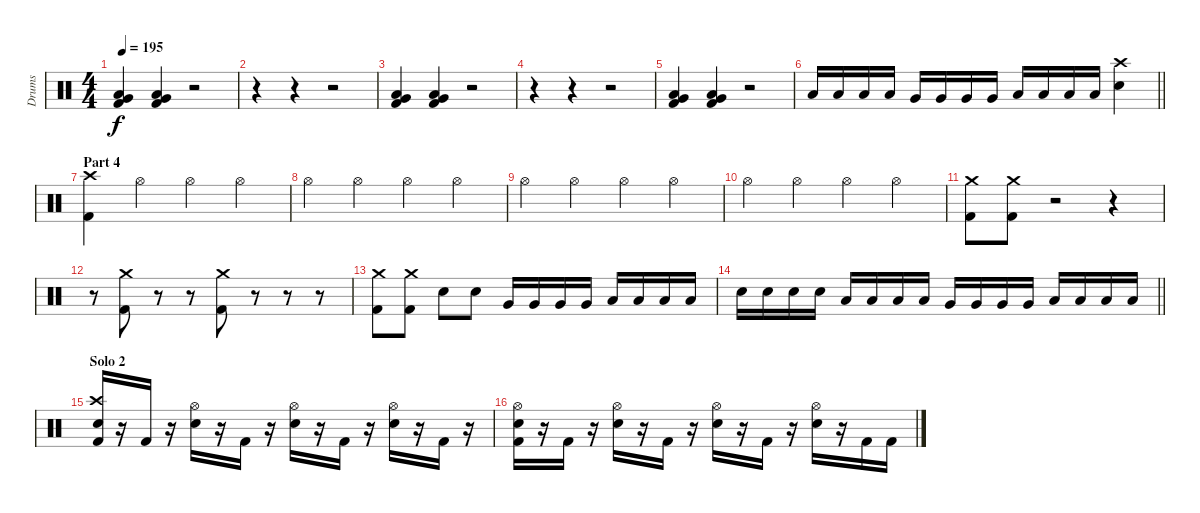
\track ("Drums" "Drums") {instrument percussion}
\staff {score}
\articulation defaults
\ts (4 4)
\tempo 195
\clef neutral
\ks c
("Very Low Tom (hit)" "Low Floor Tom (hit)" "Kick (hit) 2").4{dy f} ("Very Low Tom (hit)" "Low Floor Tom (hit)" "Kick (hit) 2").4 r.2 |
r.4 r.4 r.2 |
("Very Low Tom (hit)" "Low Floor Tom (hit)" "Kick (hit) 2").4 ("Very Low Tom (hit)" "Low Floor Tom (hit)" "Kick (hit) 2").4 r.2 |
r.4 r.4 r.2 |
("Very Low Tom (hit)" "Low Floor Tom (hit)" "Kick (hit) 2").4 ("Very Low Tom (hit)" "Low Floor Tom (hit)" "Kick (hit) 2").4 r.2 |
\barLineRight lightlight "Low Tom (hit)".16 "Low Tom (hit)".16 "Low Tom (hit)".16 "Low Tom (hit)".16 "Very Low Tom (hit)".16 "Very Low Tom (hit)".16 "Very Low Tom (hit)".16 "Very Low Tom (hit)".16 "Low Floor Tom (hit)".16 "Low Floor Tom (hit)".16 "Low Floor Tom (hit)".16 "Low Floor Tom (hit)".16
("Crash high (hit)" "Electric Snare (hit)").4 |
\section ("" "Part 4")
("Crash high (hit)" "Kick (hit) 2").4 "Hi-Hat (open)".4 "Hi-Hat (open)".4 "Hi-Hat (open)".4 |
"Hi-Hat (open)".4 "Hi-Hat (open)".4 "Hi-Hat (open)".4 "Hi-Hat (open)".4 |
"Hi-Hat (open)".4 "Hi-Hat (open)".4 "Hi-Hat (open)".4 "Hi-Hat (open)".4 |
"Hi-Hat (open)".4 "Hi-Hat (open)".4 "Hi-Hat (open)".4 "Hi-Hat (open)".4 |
("Crash medium (hit)" "Kick (hit) 2").8 ("Crash medium (hit)" "Kick (hit) 2").8 r.2 r.4 |
r.8 ("Crash medium (hit)" "Kick (hit) 2").8 r.8 r.8 ("Crash medium (hit)" "Kick (hit) 2").8 r.8 r.8 r.8 |
("Crash medium (hit)" "Kick (hit) 2").8 ("Crash medium (hit)" "Kick (hit) 2").8 "Electric Snare (hit)".8 "Electric Snare (hit)".8 "Very Low Tom (hit)".16 "Very Low Tom (hit)".16 "Very Low Tom (hit)".16 "Very Low Tom (hit)".16 "Low Floor Tom (hit)".16 "Low Floor Tom (hit)".16 "Low Floor Tom (hit)".16 "Low Floor Tom (hit)".16 |
\barLineRight lightlight "Electric Snare (hit)".16 "Electric Snare (hit)".16 "Electric Snare (hit)".16 "Electric Snare (hit)".16 "Low Tom (hit)".16 "Low Tom (hit)".16 "Low Tom (hit)".16 "Low Tom (hit)".16 "Very Low Tom (hit)".16 "Very Low Tom (hit)".16 "Very Low Tom (hit)".16 "Very Low Tom (hit)".16 "Low Floor Tom (hit)".16 "Low Floor Tom (hit)".16 "Low Floor Tom (hit)".16 "Low Floor Tom (hit)".16
|
\section ("" "Solo 2")
("Crash high (hit)" "Electric Snare (hit)" "Kick (hit) 2").16 r.16 "Kick (hit) 2".16 r.16 ("Hi-Hat (open)" "Electric Snare (hit)").16 r.16 "Kick (hit) 2".16 r.16 ("Hi-Hat (open)" "Electric Snare (hit)").16 r.16 "Kick (hit) 2".16 r.16 ("Hi-Hat (open)" "Electric Snare (hit)").16 r.16 "Kick (hit) 2".16 r.16 |
("Hi-Hat (open)" "Electric Snare (hit)" "Kick (hit) 2").16 r.16 "Kick (hit) 2".16 r.16 ("Hi-Hat (open)" "Electric Snare (hit)").16 r.16 "Kick (hit) 2".16 r.16 ("Hi-Hat (open)" "Electric Snare (hit)").16 r.16 "Kick (hit) 2".16 r.16 ("Hi-Hat (open)" "Electric Snare (hit)").16 r.16 "Kick (hit) 2".16 "Kick (hit) 2".16
